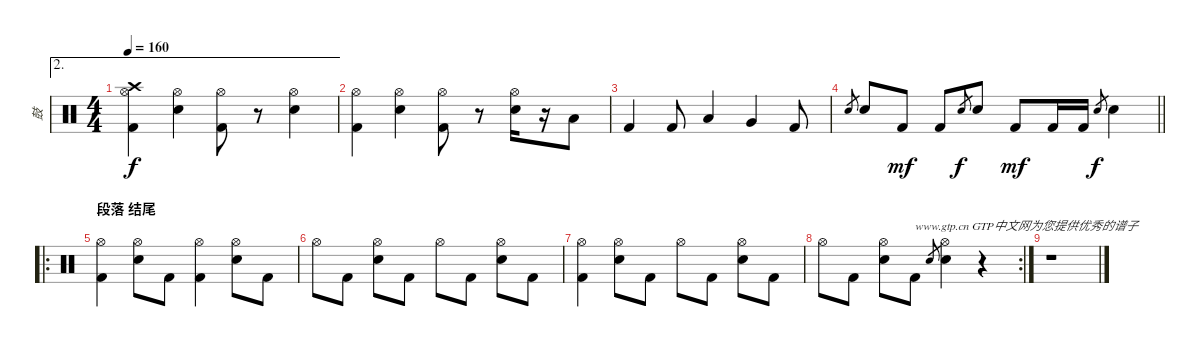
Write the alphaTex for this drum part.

\track ("鼓" "鼓") {instrument percussion}
\staff {score}
\articulation defaults
\ae 2
\ts (4 4)
\tempo 160
\clef neutral
\ks c
("Crash high (hit)" "Hi-Hat (open)" "Kick (hit) 2").4{dy f} ("Hi-Hat (open)" "Electric Snare (hit)").4 ("Hi-Hat (open)" "Kick (hit) 2").8 r.8 ("Hi-Hat (open)" "Electric Snare (hit)").4 |
("Hi-Hat (open)" "Kick (hit) 2").4 ("Hi-Hat (open)" "Electric Snare (hit)").4 ("Hi-Hat (open)" "Kick (hit) 2").8 r.8 ("Hi-Hat (open)" "Electric Snare (hit)").16 r.16 "Low Tom (hit)".8 |
"Kick (hit) 2".4 "Kick (hit) 2".8 "Low Tom (hit)".4 "Very Low Tom (hit)".4 "Kick (hit) 2".8 |
\barLineRight lightlight "Electric Snare (hit)".8{gr} "Electric Snare (hit)".8 "Kick (hit) 2".8{dy mf} "Kick (hit) 2".8 "Electric Snare (hit)".8{gr dy f} "Electric Snare (hit)".8 "Kick (hit) 2".8{dy mf} "Kick (hit) 2".16 "Kick (hit) 2".16 "Electric Snare (hit)".8{gr dy f} "Electric Snare (hit)".4
|
\ro
\section ("" "段落 结尾")
("Hi-Hat (open)" "Kick (hit) 2").4 ("Hi-Hat (open)" "Electric Snare (hit)").8 "Kick (hit) 2".8 ("Hi-Hat (open)" "Kick (hit) 2").4 ("Hi-Hat (open)" "Electric Snare (hit)").8 "Kick (hit) 2".8 |
"Hi-Hat (open)".8 "Kick (hit) 2".8 ("Hi-Hat (open)" "Electric Snare (hit)").8 "Kick (hit) 2".8 "Hi-Hat (open)".8 "Kick (hit) 2".8 ("Hi-Hat (open)" "Electric Snare (hit)").8 "Kick (hit) 2".8 |
("Hi-Hat (open)" "Kick (hit) 2").4 ("Hi-Hat (open)" "Electric Snare (hit)").8 "Kick (hit) 2".8 "Hi-Hat (open)".8 "Kick (hit) 2".8 ("Hi-Hat (open)" "Electric Snare (hit)").8 "Kick (hit) 2".8 |
\rc 2 "Hi-Hat (open)".8 "Kick (hit) 2".8
("Hi-Hat (open)" "Electric Snare (hit)").8 "Kick (hit) 2".8{txt "www.gtp.cn GTP中文网为您提供优秀的谱子"} "Electric Snare (hit)".8{gr} ("Hi-Hat (open)" "Electric Snare (hit)").4 r.4 |
r.1
